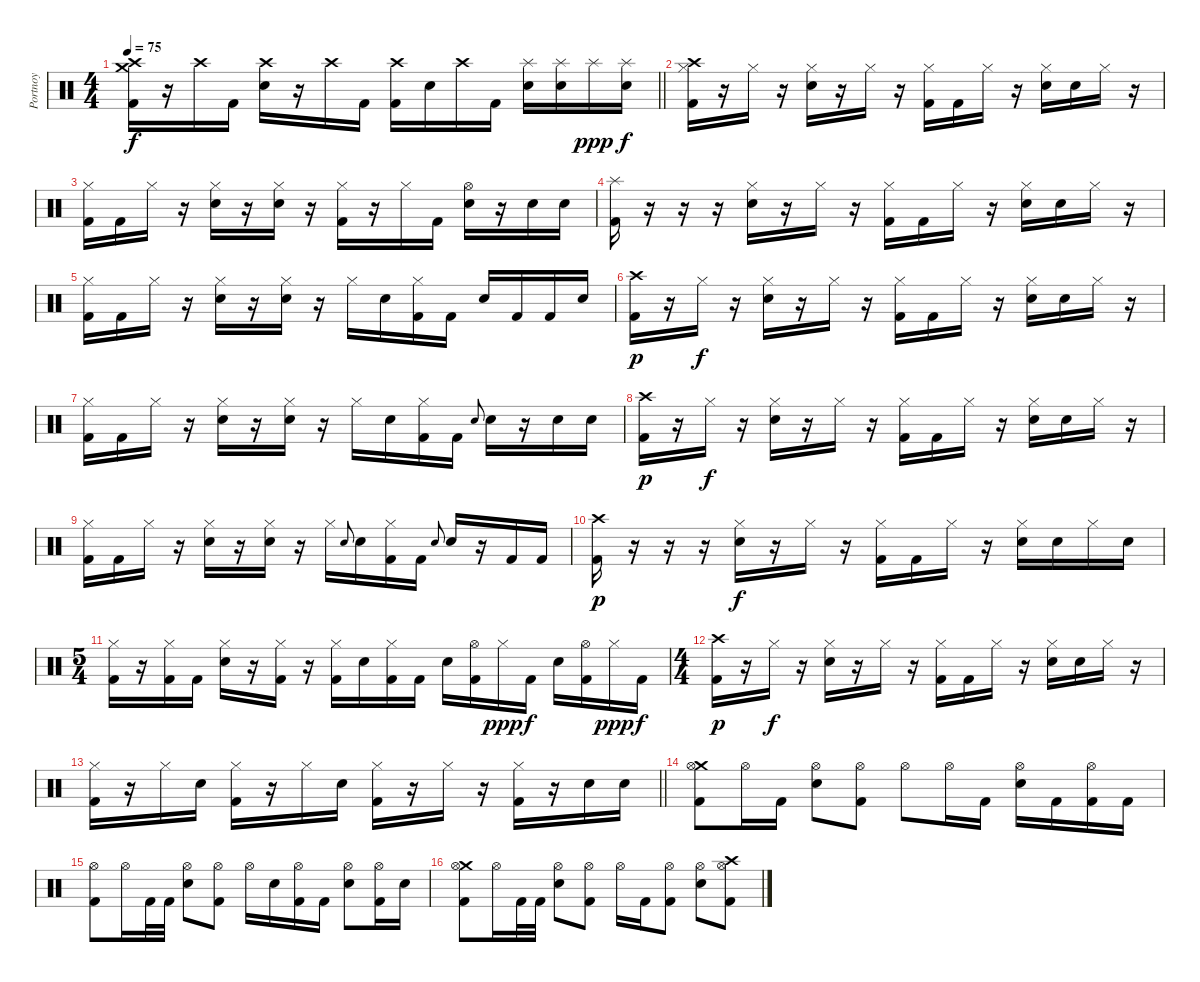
\track ("Portnoy" "Portnoy") {instrument percussion}
\staff {score}
\articulation defaults
\ts (4 4)
\tempo 75
\clef neutral
\barLineRight lightlight
\ks c
("Crash medium (hit)" "Crash high (hit)" "Kick (hit) 2").16{dy f} r.16 "Crash high (hit)".16 "Kick (hit) 2".16 ("Crash high (hit)" "Electric Snare (hit)").16 r.16 "Crash high (hit)".16 "Kick (hit) 2".16 ("Crash high (hit)" "Kick (hit) 2").16 "Electric Snare (hit)".16 "Crash high (hit)".16 "Kick (hit) 2".16 ("Splash (hit)" "Electric Snare (hit)").16 ("Splash (hit)" "Electric Snare (hit)").16 "Splash (hit)".16{dy ppp} ("Splash (hit)" "Electric Snare (hit)").16{dy f} |
("Crash high (hit)" "Hi-Hat (closed)" "Kick (hit) 2").16 r.16 "Hi-Hat (closed)".16 r.16 ("Hi-Hat (closed)" "Electric Snare (hit)").16 r.16 "Hi-Hat (closed)".16 r.16 ("Hi-Hat (closed)" "Kick (hit) 2").16 "Kick (hit) 2".16 "Hi-Hat (closed)".16 r.16 ("Hi-Hat (closed)" "Electric Snare (hit)").16 "Electric Snare (hit)".16 "Hi-Hat (closed)".16 r.16 |
("Hi-Hat (closed)" "Kick (hit) 2").16 "Kick (hit) 2".16 "Hi-Hat (closed)".16 r.16 ("Hi-Hat (closed)" "Electric Snare (hit)").16 r.16 ("Hi-Hat (closed)" "Electric Snare (hit)").16 r.16 ("Hi-Hat (closed)" "Kick (hit) 2").16 r.16 "Hi-Hat (closed)".16 "Kick (hit) 2".16 ("Hi-Hat (open)" "Electric Snare (hit)").16 r.16 "Electric Snare (hit)".16 "Electric Snare (hit)".16 |
("Splash (hit)" "Kick (hit) 2").16 r.16 r.16 r.16 ("Hi-Hat (closed)" "Electric Snare (hit)").16 r.16 "Hi-Hat (closed)".16 r.16 ("Hi-Hat (closed)" "Kick (hit) 2").16 "Kick (hit) 2".16 "Hi-Hat (closed)".16 r.16 ("Hi-Hat (closed)" "Electric Snare (hit)").16 "Electric Snare (hit)".16 "Hi-Hat (closed)".16 r.16 |
("Hi-Hat (closed)" "Kick (hit) 2").16 "Kick (hit) 2".16 "Hi-Hat (closed)".16 r.16 ("Hi-Hat (closed)" "Electric Snare (hit)").16 r.16 ("Hi-Hat (closed)" "Electric Snare (hit)").16 r.16 "Hi-Hat (closed)".16 "Electric Snare (hit)".16 ("Hi-Hat (closed)" "Kick (hit) 2").16 "Kick (hit) 2".16 "Electric Snare (hit)".16 "Kick (hit) 2".16 "Kick (hit) 2".16 "Electric Snare (hit)".16 |
("Crash high (hit)" "Kick (hit) 2").16{dy p} r.16 "Hi-Hat (closed)".16{dy f} r.16 ("Hi-Hat (closed)" "Electric Snare (hit)").16 r.16 "Hi-Hat (closed)".16 r.16 ("Hi-Hat (closed)" "Kick (hit) 2").16 "Kick (hit) 2".16 "Hi-Hat (closed)".16 r.16 ("Hi-Hat (closed)" "Electric Snare (hit)").16 "Electric Snare (hit)".16 "Hi-Hat (closed)".16 r.16 |
("Hi-Hat (closed)" "Kick (hit) 2").16 "Kick (hit) 2".16 "Hi-Hat (closed)".16 r.16 ("Hi-Hat (closed)" "Electric Snare (hit)").16 r.16 ("Hi-Hat (closed)" "Electric Snare (hit)").16 r.16 "Hi-Hat (closed)".16 "Electric Snare (hit)".16 ("Hi-Hat (closed)" "Kick (hit) 2").16 "Kick (hit) 2".16 "Electric Snare (hit)".8{gr onbeat} "Electric Snare (hit)".16 r.16 "Electric Snare (hit)".16 "Electric Snare (hit)".16 |
("Crash high (hit)" "Kick (hit) 2").16{dy p} r.16 "Hi-Hat (closed)".16{dy f} r.16 ("Hi-Hat (closed)" "Electric Snare (hit)").16 r.16 "Hi-Hat (closed)".16 r.16 ("Hi-Hat (closed)" "Kick (hit) 2").16 "Kick (hit) 2".16 "Hi-Hat (closed)".16 r.16 ("Hi-Hat (closed)" "Electric Snare (hit)").16 "Electric Snare (hit)".16 "Hi-Hat (closed)".16 r.16 |
("Hi-Hat (closed)" "Kick (hit) 2").16 "Kick (hit) 2".16 "Hi-Hat (closed)".16 r.16 ("Hi-Hat (closed)" "Electric Snare (hit)").16 r.16 ("Hi-Hat (closed)" "Electric Snare (hit)").16 r.16 "Hi-Hat (closed)".16 "Electric Snare (hit)".8{gr onbeat} "Electric Snare (hit)".16 ("Hi-Hat (closed)" "Kick (hit) 2").16 "Kick (hit) 2".16 "Electric Snare (hit)".8{gr onbeat} "Electric Snare (hit)".16 r.16 "Kick (hit) 2".16 "Kick (hit) 2".16 |
("Crash high (hit)" "Kick (hit) 2").16{dy p} r.16 r.16 r.16 ("Hi-Hat (closed)" "Electric Snare (hit)").16{dy f} r.16 "Hi-Hat (closed)".16 r.16 ("Hi-Hat (closed)" "Kick (hit) 2").16 "Kick (hit) 2".16 "Hi-Hat (closed)".16 r.16 ("Hi-Hat (closed)" "Electric Snare (hit)").16 "Electric Snare (hit)".16 "Hi-Hat (closed)".16 "Electric Snare (hit)".16 |
\ts (5 4)
("Hi-Hat (closed)" "Kick (hit) 2").16 r.16 ("Hi-Hat (closed)" "Kick (hit) 2").16 "Kick (hit) 2".16 ("Hi-Hat (closed)" "Electric Snare (hit)").16 r.16 ("Hi-Hat (closed)" "Kick (hit) 2").16 r.16 ("Hi-Hat (closed)" "Kick (hit) 2").16 "Electric Snare (hit)".16 ("Hi-Hat (closed)" "Kick (hit) 2").16 "Kick (hit) 2".16 "Electric Snare (hit)".16 ("Hi-Hat (open)" "Kick (hit) 2").16 "Hi-Hat (closed)".16{dy ppp} "Kick (hit) 2".16{dy f} "Electric Snare (hit)".16 ("Hi-Hat (open)" "Kick (hit) 2").16 "Hi-Hat (closed)".16{dy ppp} "Kick (hit) 2".16{dy f} |
\ts (4 4)
("Crash high (hit)" "Kick (hit) 2").16{dy p} r.16 "Hi-Hat (closed)".16{dy f} r.16 ("Hi-Hat (closed)" "Electric Snare (hit)").16 r.16 "Hi-Hat (closed)".16 r.16 ("Hi-Hat (closed)" "Kick (hit) 2").16 "Kick (hit) 2".16 "Hi-Hat (closed)".16 r.16 ("Hi-Hat (closed)" "Electric Snare (hit)").16 "Electric Snare (hit)".16 "Hi-Hat (closed)".16 r.16 |
\barLineRight lightlight
("Hi-Hat (closed)" "Kick (hit) 2").16 r.16 "Hi-Hat (closed)".16 "Electric Snare (hit)".16 ("Hi-Hat (closed)" "Kick (hit) 2").16 r.16 "Hi-Hat (closed)".16 "Electric Snare (hit)".16 ("Hi-Hat (closed)" "Kick (hit) 2").16 r.16 "Hi-Hat (closed)".16 r.16 ("Hi-Hat (closed)" "Kick (hit) 2").16 r.16 "Electric Snare (hit)".16 "Electric Snare (hit)".16 |
("Crash medium (hit)" "Hi-Hat (open)" "Kick (hit) 2").8 "Hi-Hat (open)".16 "Kick (hit) 2".16 ("Hi-Hat (open)" "Electric Snare (hit)").8 ("Hi-Hat (open)" "Kick (hit) 2").8 "Hi-Hat (open)".8 "Hi-Hat (open)".16 "Kick (hit) 2".16 ("Hi-Hat (open)" "Electric Snare (hit)").16 "Kick (hit) 2".16 ("Hi-Hat (open)" "Kick (hit) 2").16 "Kick (hit) 2".16 |
("Hi-Hat (open)" "Kick (hit) 2").8 "Hi-Hat (open)".16 "Kick (hit) 2".32 "Kick (hit) 2".32 ("Hi-Hat (open)" "Electric Snare (hit)").8 ("Hi-Hat (open)" "Kick (hit) 2").8 "Hi-Hat (open)".16 "Electric Snare (hit)".16 ("Hi-Hat (open)" "Kick (hit) 2").16 "Kick (hit) 2".16 ("Hi-Hat (open)" "Electric Snare (hit)").8 ("Hi-Hat (open)" "Kick (hit) 2").16 "Electric Snare (hit)".16 |
("Crash medium (hit)" "Hi-Hat (open)" "Kick (hit) 2").8 "Hi-Hat (open)".16 "Kick (hit) 2".32 "Kick (hit) 2".32 ("Hi-Hat (open)" "Electric Snare (hit)").8 ("Hi-Hat (open)" "Kick (hit) 2").8 "Hi-Hat (open)".16 "Kick (hit) 2".16 ("Hi-Hat (open)" "Kick (hit) 2").8 ("Hi-Hat (open)" "Electric Snare (hit)").8 ("Crash high (hit)" "Hi-Hat (open)" "Kick (hit) 2").8
